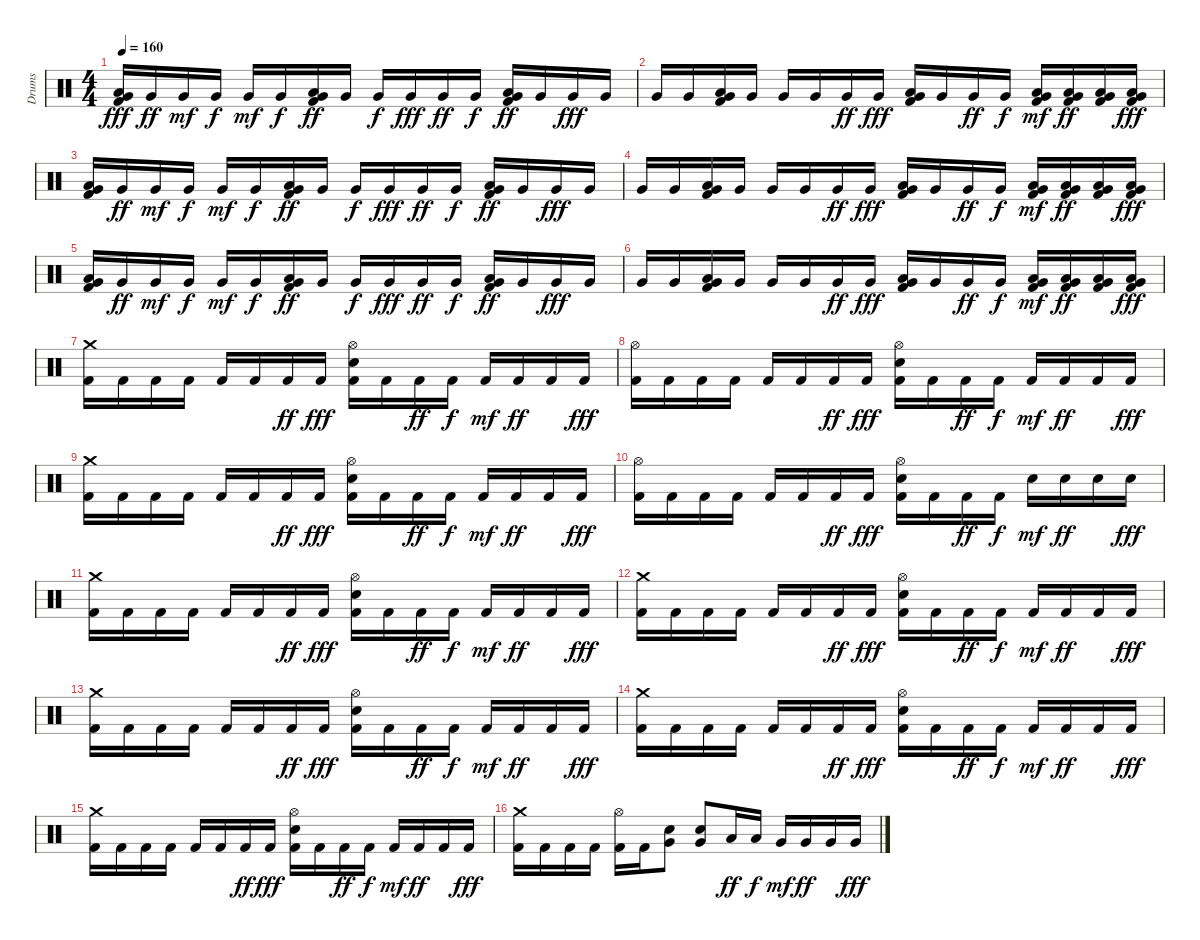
\track ("Drums" "Drums") {instrument percussion}
\staff {score}
\articulation defaults
\ts (4 4)
\tempo 160
\clef neutral
\ks c
("Low Floor Tom (hit)" "Very Low Tom (hit)" "Kick (hit) 2").16{dy fff} "Very Low Tom (hit)".16{dy ff} "Very Low Tom (hit)".16{dy mf} "Very Low Tom (hit)".16{dy f} "Very Low Tom (hit)".16{dy mf} "Very Low Tom (hit)".16{dy f} ("Low Floor Tom (hit)" "Very Low Tom (hit)" "Kick (hit) 2").16{dy ff} "Very Low Tom (hit)".16 "Very Low Tom (hit)".16{dy f} "Very Low Tom (hit)".16{dy fff} "Very Low Tom (hit)".16{dy ff} "Very Low Tom (hit)".16{dy f} ("Low Floor Tom (hit)" "Very Low Tom (hit)" "Kick (hit) 2").16{dy ff} "Very Low Tom (hit)".16 "Very Low Tom (hit)".16{dy fff} "Very Low Tom (hit)".16 |
"Very Low Tom (hit)".16 "Very Low Tom (hit)".16 ("Low Floor Tom (hit)" "Very Low Tom (hit)" "Kick (hit) 2").16 "Very Low Tom (hit)".16 "Very Low Tom (hit)".16 "Very Low Tom (hit)".16 "Very Low Tom (hit)".16{dy ff} "Very Low Tom (hit)".16{dy fff} ("Kick (hit) 2" "Very Low Tom (hit)" "Low Floor Tom (hit)").16 "Very Low Tom (hit)".16 "Very Low Tom (hit)".16{dy ff} "Very Low Tom (hit)".16{dy f} ("Kick (hit) 2" "Very Low Tom (hit)" "Low Floor Tom (hit)").16{dy mf} ("Low Floor Tom (hit)" "Very Low Tom (hit)" "Kick (hit) 2").16{dy ff} ("Low Floor Tom (hit)" "Very Low Tom (hit)" "Kick (hit) 2").16 ("Low Floor Tom (hit)" "Very Low Tom (hit)" "Kick (hit) 2").16{dy fff} |
("Low Floor Tom (hit)" "Very Low Tom (hit)" "Kick (hit) 2").16 "Very Low Tom (hit)".16{dy ff} "Very Low Tom (hit)".16{dy mf} "Very Low Tom (hit)".16{dy f} "Very Low Tom (hit)".16{dy mf} "Very Low Tom (hit)".16{dy f} ("Low Floor Tom (hit)" "Very Low Tom (hit)" "Kick (hit) 2").16{dy ff} "Very Low Tom (hit)".16 "Very Low Tom (hit)".16{dy f} "Very Low Tom (hit)".16{dy fff} "Very Low Tom (hit)".16{dy ff} "Very Low Tom (hit)".16{dy f} ("Low Floor Tom (hit)" "Very Low Tom (hit)" "Kick (hit) 2").16{dy ff} "Very Low Tom (hit)".16 "Very Low Tom (hit)".16{dy fff} "Very Low Tom (hit)".16 |
"Very Low Tom (hit)".16 "Very Low Tom (hit)".16 ("Low Floor Tom (hit)" "Very Low Tom (hit)" "Kick (hit) 2").16 "Very Low Tom (hit)".16 "Very Low Tom (hit)".16 "Very Low Tom (hit)".16 "Very Low Tom (hit)".16{dy ff} "Very Low Tom (hit)".16{dy fff} ("Kick (hit) 2" "Very Low Tom (hit)" "Low Floor Tom (hit)").16 "Very Low Tom (hit)".16 "Very Low Tom (hit)".16{dy ff} "Very Low Tom (hit)".16{dy f} ("Kick (hit) 2" "Very Low Tom (hit)" "Low Floor Tom (hit)").16{dy mf} ("Low Floor Tom (hit)" "Very Low Tom (hit)" "Kick (hit) 2").16{dy ff} ("Low Floor Tom (hit)" "Very Low Tom (hit)" "Kick (hit) 2").16 ("Low Floor Tom (hit)" "Very Low Tom (hit)" "Kick (hit) 2").16{dy fff} |
("Low Floor Tom (hit)" "Very Low Tom (hit)" "Kick (hit) 2").16 "Very Low Tom (hit)".16{dy ff} "Very Low Tom (hit)".16{dy mf} "Very Low Tom (hit)".16{dy f} "Very Low Tom (hit)".16{dy mf} "Very Low Tom (hit)".16{dy f} ("Low Floor Tom (hit)" "Very Low Tom (hit)" "Kick (hit) 2").16{dy ff} "Very Low Tom (hit)".16 "Very Low Tom (hit)".16{dy f} "Very Low Tom (hit)".16{dy fff} "Very Low Tom (hit)".16{dy ff} "Very Low Tom (hit)".16{dy f} ("Low Floor Tom (hit)" "Very Low Tom (hit)" "Kick (hit) 2").16{dy ff} "Very Low Tom (hit)".16 "Very Low Tom (hit)".16{dy fff} "Very Low Tom (hit)".16 |
"Very Low Tom (hit)".16 "Very Low Tom (hit)".16 ("Low Floor Tom (hit)" "Very Low Tom (hit)" "Kick (hit) 2").16 "Very Low Tom (hit)".16 "Very Low Tom (hit)".16 "Very Low Tom (hit)".16 "Very Low Tom (hit)".16{dy ff} "Very Low Tom (hit)".16{dy fff} ("Kick (hit) 2" "Very Low Tom (hit)" "Low Floor Tom (hit)").16 "Very Low Tom (hit)".16 "Very Low Tom (hit)".16{dy ff} "Very Low Tom (hit)".16{dy f} ("Kick (hit) 2" "Very Low Tom (hit)" "Low Floor Tom (hit)").16{dy mf} ("Low Floor Tom (hit)" "Very Low Tom (hit)" "Kick (hit) 2").16{dy ff} ("Low Floor Tom (hit)" "Very Low Tom (hit)" "Kick (hit) 2").16 ("Low Floor Tom (hit)" "Very Low Tom (hit)" "Kick (hit) 2").16{dy fff} |
("Kick (hit) 2" "Crash medium (hit)").16 "Kick (hit) 2".16 "Kick (hit) 2".16 "Kick (hit) 2".16 "Kick (hit) 2".16 "Kick (hit) 2".16 "Kick (hit) 2".16{dy ff} "Kick (hit) 2".16{dy fff} ("Kick (hit) 2" "Electric Snare (hit)" "Hi-Hat (open)").16 "Kick (hit) 2".16 "Kick (hit) 2".16{dy ff} "Kick (hit) 2".16{dy f} "Kick (hit) 2".16{dy mf} "Kick (hit) 2".16{dy ff} "Kick (hit) 2".16 "Kick (hit) 2".16{dy fff} |
("Kick (hit) 2" "Hi-Hat (open)").16 "Kick (hit) 2".16 "Kick (hit) 2".16 "Kick (hit) 2".16 "Kick (hit) 2".16 "Kick (hit) 2".16 "Kick (hit) 2".16{dy ff} "Kick (hit) 2".16{dy fff} ("Kick (hit) 2" "Electric Snare (hit)" "Hi-Hat (open)").16 "Kick (hit) 2".16 "Kick (hit) 2".16{dy ff} "Kick (hit) 2".16{dy f} "Kick (hit) 2".16{dy mf} "Kick (hit) 2".16{dy ff} "Kick (hit) 2".16 "Kick (hit) 2".16{dy fff} |
("Kick (hit) 2" "Crash medium (hit)").16 "Kick (hit) 2".16 "Kick (hit) 2".16 "Kick (hit) 2".16 "Kick (hit) 2".16 "Kick (hit) 2".16 "Kick (hit) 2".16{dy ff} "Kick (hit) 2".16{dy fff} ("Kick (hit) 2" "Electric Snare (hit)" "Hi-Hat (open)").16 "Kick (hit) 2".16 "Kick (hit) 2".16{dy ff} "Kick (hit) 2".16{dy f} "Kick (hit) 2".16{dy mf} "Kick (hit) 2".16{dy ff} "Kick (hit) 2".16 "Kick (hit) 2".16{dy fff} |
("Kick (hit) 2" "Hi-Hat (open)").16 "Kick (hit) 2".16 "Kick (hit) 2".16 "Kick (hit) 2".16 "Kick (hit) 2".16 "Kick (hit) 2".16 "Kick (hit) 2".16{dy ff} "Kick (hit) 2".16{dy fff} ("Kick (hit) 2" "Electric Snare (hit)" "Hi-Hat (open)").16 "Kick (hit) 2".16 "Kick (hit) 2".16{dy ff} "Kick (hit) 2".16{dy f} "Electric Snare (hit)".16{dy mf} "Electric Snare (hit)".16{dy ff} "Electric Snare (hit)".16 "Electric Snare (hit)".16{dy fff} |
("Kick (hit) 2" "Crash medium (hit)").16 "Kick (hit) 2".16 "Kick (hit) 2".16 "Kick (hit) 2".16 "Kick (hit) 2".16 "Kick (hit) 2".16 "Kick (hit) 2".16{dy ff} "Kick (hit) 2".16{dy fff} ("Kick (hit) 2" "Electric Snare (hit)" "Hi-Hat (open)").16 "Kick (hit) 2".16 "Kick (hit) 2".16{dy ff} "Kick (hit) 2".16{dy f} "Kick (hit) 2".16{dy mf} "Kick (hit) 2".16{dy ff} "Kick (hit) 2".16 "Kick (hit) 2".16{dy fff} |
("Kick (hit) 2" "Crash medium (hit)").16 "Kick (hit) 2".16 "Kick (hit) 2".16 "Kick (hit) 2".16 "Kick (hit) 2".16 "Kick (hit) 2".16 "Kick (hit) 2".16{dy ff} "Kick (hit) 2".16{dy fff} ("Kick (hit) 2" "Electric Snare (hit)" "Hi-Hat (open)").16 "Kick (hit) 2".16 "Kick (hit) 2".16{dy ff} "Kick (hit) 2".16{dy f} "Kick (hit) 2".16{dy mf} "Kick (hit) 2".16{dy ff} "Kick (hit) 2".16 "Kick (hit) 2".16{dy fff} |
("Kick (hit) 2" "Crash medium (hit)").16 "Kick (hit) 2".16 "Kick (hit) 2".16 "Kick (hit) 2".16 "Kick (hit) 2".16 "Kick (hit) 2".16 "Kick (hit) 2".16{dy ff} "Kick (hit) 2".16{dy fff} ("Kick (hit) 2" "Electric Snare (hit)" "Hi-Hat (open)").16 "Kick (hit) 2".16 "Kick (hit) 2".16{dy ff} "Kick (hit) 2".16{dy f} "Kick (hit) 2".16{dy mf} "Kick (hit) 2".16{dy ff} "Kick (hit) 2".16 "Kick (hit) 2".16{dy fff} |
("Kick (hit) 2" "Crash medium (hit)").16 "Kick (hit) 2".16 "Kick (hit) 2".16 "Kick (hit) 2".16 "Kick (hit) 2".16 "Kick (hit) 2".16 "Kick (hit) 2".16{dy ff} "Kick (hit) 2".16{dy fff} ("Kick (hit) 2" "Electric Snare (hit)" "Hi-Hat (open)").16 "Kick (hit) 2".16 "Kick (hit) 2".16{dy ff} "Kick (hit) 2".16{dy f} "Kick (hit) 2".16{dy mf} "Kick (hit) 2".16{dy ff} "Kick (hit) 2".16 "Kick (hit) 2".16{dy fff} |
("Kick (hit) 2" "Crash medium (hit)").16 "Kick (hit) 2".16 "Kick (hit) 2".16 "Kick (hit) 2".16 "Kick (hit) 2".16 "Kick (hit) 2".16 "Kick (hit) 2".16{dy ff} "Kick (hit) 2".16{dy fff} ("Kick (hit) 2" "Electric Snare (hit)" "Hi-Hat (open)").16 "Kick (hit) 2".16 "Kick (hit) 2".16{dy ff} "Kick (hit) 2".16{dy f} "Kick (hit) 2".16{dy mf} "Kick (hit) 2".16{dy ff} "Kick (hit) 2".16 "Kick (hit) 2".16{dy fff} |
("Kick (hit) 2" "Crash medium (hit)").16 "Kick (hit) 2".16 "Kick (hit) 2".16 "Kick (hit) 2".16 ("Kick (hit) 2" "Hi-Hat (open)").16 "Kick (hit) 2".16 ("Very Low Tom (hit)" "Electric Snare (hit)").8 ("Very Low Tom (hit)" "Electric Snare (hit)").8 "Low Tom (hit)".16{dy ff} "Low Tom (hit)".16{dy f} "Very Low Tom (hit)".16{dy mf} "Very Low Tom (hit)".16{dy ff} "Very Low Tom (hit)".16 "Very Low Tom (hit)".16{dy fff}
